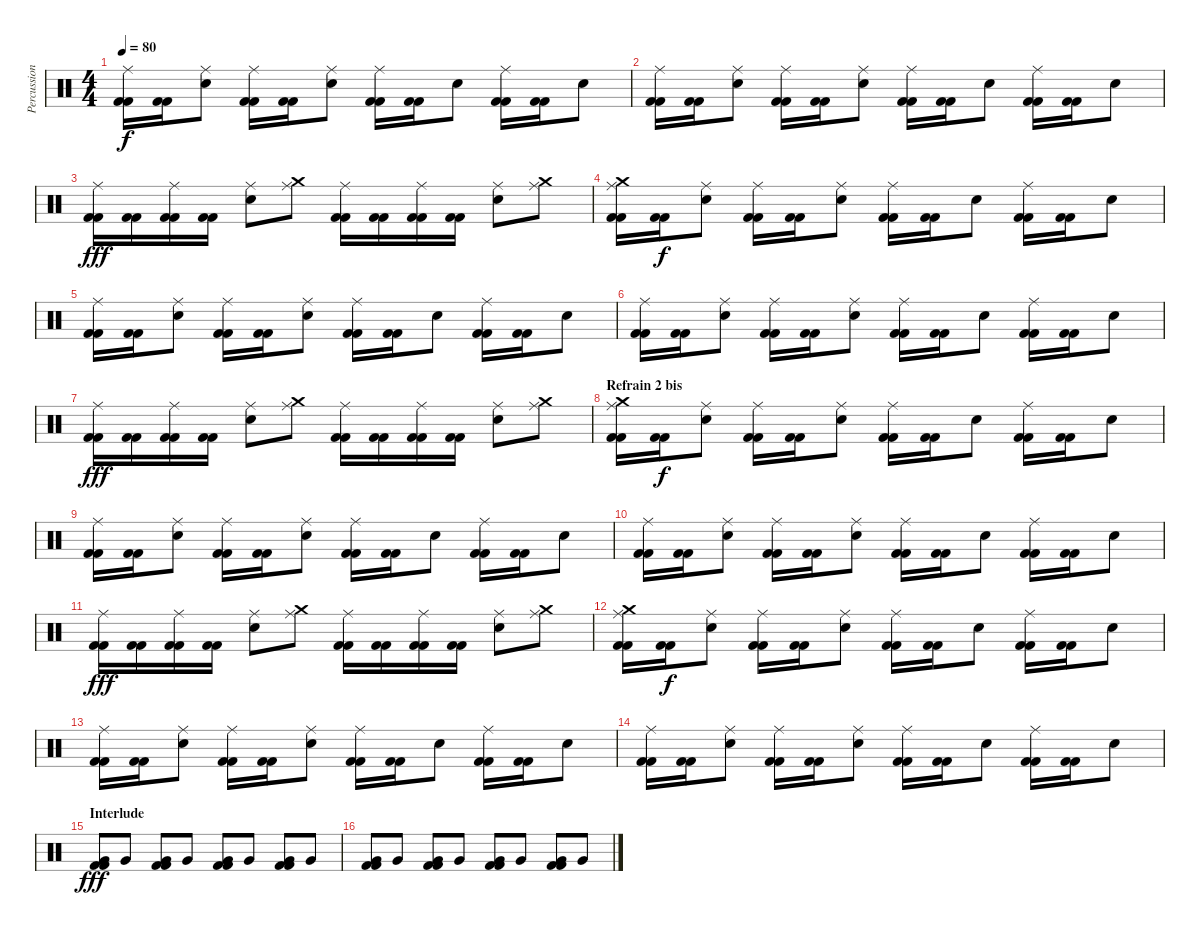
\track ("Percussions" "Percussion") {instrument percussion}
\staff {score}
\articulation defaults
\ts (4 4)
\tempo 80
\clef neutral
\ks c
("Kick (hit) 2" "Kick (hit) 2" "Ride (middle)").16{dy f} ("Kick (hit) 2" "Kick (hit) 2").16 ("Snare (hit) 2" "Ride (middle)").8 ("Kick (hit) 2" "Kick (hit) 2" "Ride (middle)").16 ("Kick (hit) 2" "Kick (hit) 2").16 ("Snare (hit) 2" "Ride (middle)").8 ("Kick (hit) 2" "Kick (hit) 2" "Ride (middle)").16 ("Kick (hit) 2" "Kick (hit) 2").16 "Snare (hit) 2".8 ("Kick (hit) 2" "Kick (hit) 2" "Ride (middle)").16 ("Kick (hit) 2" "Kick (hit) 2").16 "Snare (hit) 2".8 |
("Kick (hit) 2" "Kick (hit) 2" "Ride (middle)").16 ("Kick (hit) 2" "Kick (hit) 2").16 ("Snare (hit) 2" "Ride (middle)").8 ("Kick (hit) 2" "Kick (hit) 2" "Ride (middle)").16 ("Kick (hit) 2" "Kick (hit) 2").16 ("Snare (hit) 2" "Ride (middle)").8 ("Kick (hit) 2" "Kick (hit) 2" "Ride (middle)").16 ("Kick (hit) 2" "Kick (hit) 2").16 "Snare (hit) 2".8 ("Kick (hit) 2" "Kick (hit) 2" "Ride (middle)").16 ("Kick (hit) 2" "Kick (hit) 2").16 "Snare (hit) 2".8 |
("Kick (hit) 2" "Kick (hit) 2" "Ride (middle)").16{dy fff} ("Kick (hit) 2" "Kick (hit) 2").16 ("Kick (hit) 2" "Kick (hit) 2" "Ride (middle)").16 ("Kick (hit) 2" "Kick (hit) 2").16 ("Snare (hit) 2" "Ride (middle)").8 ("Crash medium (hit)" "Ride (middle)").8 ("Kick (hit) 2" "Kick (hit) 2" "Ride (middle)").16 ("Kick (hit) 2" "Kick (hit) 2").16 ("Kick (hit) 2" "Kick (hit) 2" "Ride (middle)").16 ("Kick (hit) 2" "Kick (hit) 2").16 ("Snare (hit) 2" "Ride (middle)").8 ("Crash medium (hit)" "Ride (middle)").8 |
("Crash medium (hit)" "Kick (hit) 2" "Kick (hit) 2" "Ride (middle)").16 ("Kick (hit) 2" "Kick (hit) 2").16{dy f} ("Snare (hit) 2" "Ride (middle)").8 ("Kick (hit) 2" "Kick (hit) 2" "Ride (middle)").16 ("Kick (hit) 2" "Kick (hit) 2").16 ("Snare (hit) 2" "Ride (middle)").8 ("Kick (hit) 2" "Kick (hit) 2" "Ride (middle)").16 ("Kick (hit) 2" "Kick (hit) 2").16 "Snare (hit) 2".8 ("Kick (hit) 2" "Kick (hit) 2" "Ride (middle)").16 ("Kick (hit) 2" "Kick (hit) 2").16 "Snare (hit) 2".8 |
("Kick (hit) 2" "Kick (hit) 2" "Ride (middle)").16 ("Kick (hit) 2" "Kick (hit) 2").16 ("Snare (hit) 2" "Ride (middle)").8 ("Kick (hit) 2" "Kick (hit) 2" "Ride (middle)").16 ("Kick (hit) 2" "Kick (hit) 2").16 ("Snare (hit) 2" "Ride (middle)").8 ("Kick (hit) 2" "Kick (hit) 2" "Ride (middle)").16 ("Kick (hit) 2" "Kick (hit) 2").16 "Snare (hit) 2".8 ("Kick (hit) 2" "Kick (hit) 2" "Ride (middle)").16 ("Kick (hit) 2" "Kick (hit) 2").16 "Snare (hit) 2".8 |
("Kick (hit) 2" "Kick (hit) 2" "Ride (middle)").16 ("Kick (hit) 2" "Kick (hit) 2").16 ("Snare (hit) 2" "Ride (middle)").8 ("Kick (hit) 2" "Kick (hit) 2" "Ride (middle)").16 ("Kick (hit) 2" "Kick (hit) 2").16 ("Snare (hit) 2" "Ride (middle)").8 ("Kick (hit) 2" "Kick (hit) 2" "Ride (middle)").16 ("Kick (hit) 2" "Kick (hit) 2").16 "Snare (hit) 2".8 ("Kick (hit) 2" "Kick (hit) 2" "Ride (middle)").16 ("Kick (hit) 2" "Kick (hit) 2").16 "Snare (hit) 2".8 |
("Kick (hit) 2" "Kick (hit) 2" "Ride (middle)").16{dy fff} ("Kick (hit) 2" "Kick (hit) 2").16 ("Kick (hit) 2" "Kick (hit) 2" "Ride (middle)").16 ("Kick (hit) 2" "Kick (hit) 2").16 ("Snare (hit) 2" "Ride (middle)").8 ("Crash medium (hit)" "Ride (middle)").8 ("Kick (hit) 2" "Kick (hit) 2" "Ride (middle)").16 ("Kick (hit) 2" "Kick (hit) 2").16 ("Kick (hit) 2" "Kick (hit) 2" "Ride (middle)").16 ("Kick (hit) 2" "Kick (hit) 2").16 ("Snare (hit) 2" "Ride (middle)").8 ("Crash medium (hit)" "Ride (middle)").8 |
\section ("" "Refrain 2 bis")
("Crash medium (hit)" "Kick (hit) 2" "Kick (hit) 2" "Ride (middle)").16 ("Kick (hit) 2" "Kick (hit) 2").16{dy f} ("Snare (hit) 2" "Ride (middle)").8 ("Kick (hit) 2" "Kick (hit) 2" "Ride (middle)").16 ("Kick (hit) 2" "Kick (hit) 2").16 ("Snare (hit) 2" "Ride (middle)").8 ("Kick (hit) 2" "Kick (hit) 2" "Ride (middle)").16 ("Kick (hit) 2" "Kick (hit) 2").16 "Snare (hit) 2".8 ("Kick (hit) 2" "Kick (hit) 2" "Ride (middle)").16 ("Kick (hit) 2" "Kick (hit) 2").16 "Snare (hit) 2".8 |
("Kick (hit) 2" "Kick (hit) 2" "Ride (middle)").16 ("Kick (hit) 2" "Kick (hit) 2").16 ("Snare (hit) 2" "Ride (middle)").8 ("Kick (hit) 2" "Kick (hit) 2" "Ride (middle)").16 ("Kick (hit) 2" "Kick (hit) 2").16 ("Snare (hit) 2" "Ride (middle)").8 ("Kick (hit) 2" "Kick (hit) 2" "Ride (middle)").16 ("Kick (hit) 2" "Kick (hit) 2").16 "Snare (hit) 2".8 ("Kick (hit) 2" "Kick (hit) 2" "Ride (middle)").16 ("Kick (hit) 2" "Kick (hit) 2").16 "Snare (hit) 2".8 |
("Kick (hit) 2" "Kick (hit) 2" "Ride (middle)").16 ("Kick (hit) 2" "Kick (hit) 2").16 ("Snare (hit) 2" "Ride (middle)").8 ("Kick (hit) 2" "Kick (hit) 2" "Ride (middle)").16 ("Kick (hit) 2" "Kick (hit) 2").16 ("Snare (hit) 2" "Ride (middle)").8 ("Kick (hit) 2" "Kick (hit) 2" "Ride (middle)").16 ("Kick (hit) 2" "Kick (hit) 2").16 "Snare (hit) 2".8 ("Kick (hit) 2" "Kick (hit) 2" "Ride (middle)").16 ("Kick (hit) 2" "Kick (hit) 2").16 "Snare (hit) 2".8 |
("Kick (hit) 2" "Kick (hit) 2" "Ride (middle)").16{dy fff} ("Kick (hit) 2" "Kick (hit) 2").16 ("Kick (hit) 2" "Kick (hit) 2" "Ride (middle)").16 ("Kick (hit) 2" "Kick (hit) 2").16 ("Snare (hit) 2" "Ride (middle)").8 ("Crash medium (hit)" "Ride (middle)").8 ("Kick (hit) 2" "Kick (hit) 2" "Ride (middle)").16 ("Kick (hit) 2" "Kick (hit) 2").16 ("Kick (hit) 2" "Kick (hit) 2" "Ride (middle)").16 ("Kick (hit) 2" "Kick (hit) 2").16 ("Snare (hit) 2" "Ride (middle)").8 ("Crash medium (hit)" "Ride (middle)").8 |
("Crash medium (hit)" "Kick (hit) 2" "Kick (hit) 2" "Ride (middle)").16 ("Kick (hit) 2" "Kick (hit) 2").16{dy f} ("Snare (hit) 2" "Ride (middle)").8 ("Kick (hit) 2" "Kick (hit) 2" "Ride (middle)").16 ("Kick (hit) 2" "Kick (hit) 2").16 ("Snare (hit) 2" "Ride (middle)").8 ("Kick (hit) 2" "Kick (hit) 2" "Ride (middle)").16 ("Kick (hit) 2" "Kick (hit) 2").16 "Snare (hit) 2".8 ("Kick (hit) 2" "Kick (hit) 2" "Ride (middle)").16 ("Kick (hit) 2" "Kick (hit) 2").16 "Snare (hit) 2".8 |
("Kick (hit) 2" "Kick (hit) 2" "Ride (middle)").16 ("Kick (hit) 2" "Kick (hit) 2").16 ("Snare (hit) 2" "Ride (middle)").8 ("Kick (hit) 2" "Kick (hit) 2" "Ride (middle)").16 ("Kick (hit) 2" "Kick (hit) 2").16 ("Snare (hit) 2" "Ride (middle)").8 ("Kick (hit) 2" "Kick (hit) 2" "Ride (middle)").16 ("Kick (hit) 2" "Kick (hit) 2").16 "Snare (hit) 2".8 ("Kick (hit) 2" "Kick (hit) 2" "Ride (middle)").16 ("Kick (hit) 2" "Kick (hit) 2").16 "Snare (hit) 2".8 |
("Kick (hit) 2" "Kick (hit) 2" "Ride (middle)").16 ("Kick (hit) 2" "Kick (hit) 2").16 ("Snare (hit) 2" "Ride (middle)").8 ("Kick (hit) 2" "Kick (hit) 2" "Ride (middle)").16 ("Kick (hit) 2" "Kick (hit) 2").16 ("Snare (hit) 2" "Ride (middle)").8 ("Kick (hit) 2" "Kick (hit) 2" "Ride (middle)").16 ("Kick (hit) 2" "Kick (hit) 2").16 "Snare (hit) 2".8 ("Kick (hit) 2" "Kick (hit) 2" "Ride (middle)").16 ("Kick (hit) 2" "Kick (hit) 2").16 "Snare (hit) 2".8 |
\section ("" "Interlude")
("Kick (hit) 2" "Kick (hit) 2" "Very Low Tom (hit)").8{dy fff} "Very Low Tom (hit)".8 ("Kick (hit) 2" "Kick (hit) 2" "Very Low Tom (hit)").8 "Very Low Tom (hit)".8 ("Kick (hit) 2" "Kick (hit) 2" "Very Low Tom (hit)").8 "Very Low Tom (hit)".8 ("Kick (hit) 2" "Kick (hit) 2" "Very Low Tom (hit)").8 "Very Low Tom (hit)".8 |
("Kick (hit) 2" "Kick (hit) 2" "Very Low Tom (hit)").8 "Very Low Tom (hit)".8 ("Kick (hit) 2" "Kick (hit) 2" "Very Low Tom (hit)").8 "Very Low Tom (hit)".8 ("Kick (hit) 2" "Kick (hit) 2" "Very Low Tom (hit)").8 "Very Low Tom (hit)".8 ("Kick (hit) 2" "Kick (hit) 2" "Very Low Tom (hit)").8 "Very Low Tom (hit)".8
